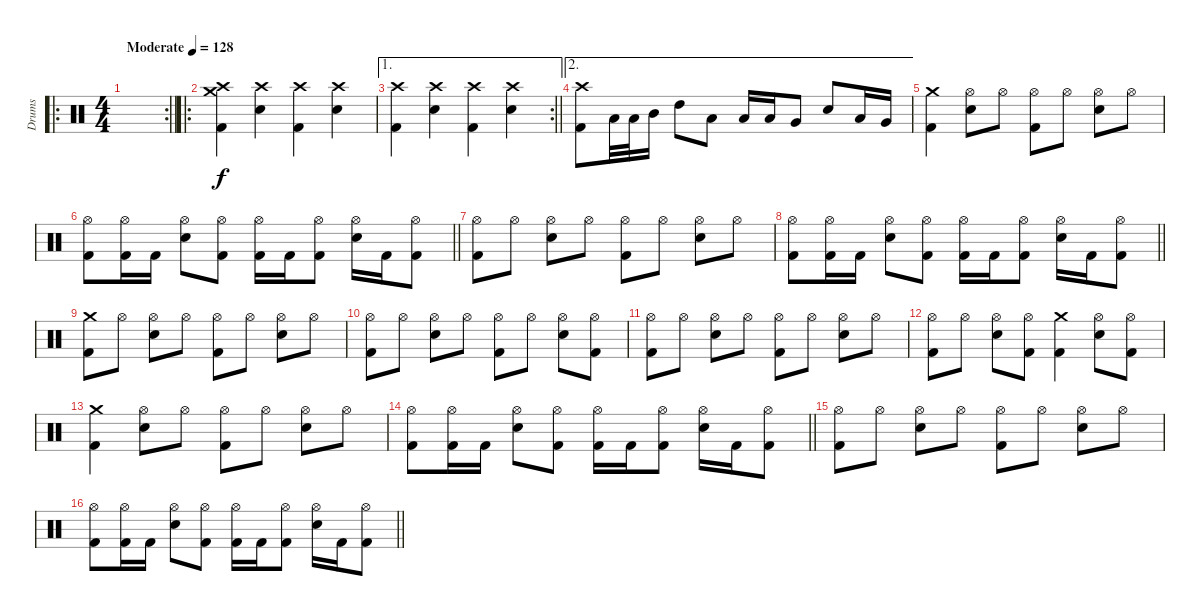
\track ("Drums" "Drums") {instrument percussion}
\staff {score}
\articulation defaults
\ro
\rc 2
\ts (4 4)
\tempo (128 "Moderate")
\clef neutral
\barLineRight lightlight
\ks c
|
\ro
("Crash medium (hit)" "Crash high (hit)" "Kick (hit) 2").4 ("Crash high (hit)" "Electric Snare (hit)").4 ("Crash high (hit)" "Kick (hit) 2").4 ("Crash high (hit)" "Electric Snare (hit)").4 |
\ae 1
\rc 2
\barLineRight lightlight
("Crash high (hit)" "Kick (hit) 2").4 ("Crash high (hit)" "Electric Snare (hit)").4 ("Crash high (hit)" "Kick (hit) 2").4 ("Crash high (hit)" "Electric Snare (hit)").4 |
\ae 2
("Crash high (hit)" "Kick (hit) 2").8 "Low Tom (hit)".32 "Low Tom (hit)".32 "Mid Tom (hit)".16 "High Tom (hit)".8 "Low Tom (hit)".8 "Low Tom (hit)".16 "Low Tom (hit)".16 "Very Low Tom (hit)".8 "Electric Snare (hit)".8 "Low Tom (hit)".16 "Very Low Tom (hit)".16 |
("Crash medium (hit)" "Kick (hit) 2").4 ("Hi-Hat (open)" "Electric Snare (hit)").8 "Hi-Hat (open)".8 ("Hi-Hat (open)" "Kick (hit) 2").8 "Hi-Hat (open)".8 ("Hi-Hat (open)" "Electric Snare (hit)").8 "Hi-Hat (open)".8 |
\barLineRight lightlight
("Hi-Hat (open)" "Kick (hit) 2").8 ("Hi-Hat (open)" "Kick (hit) 2").16 "Kick (hit) 2".16 ("Hi-Hat (open)" "Electric Snare (hit)").8 ("Hi-Hat (open)" "Kick (hit) 2").8 ("Hi-Hat (open)" "Kick (hit) 2").16 "Kick (hit) 2".16 ("Hi-Hat (open)" "Kick (hit) 2").8 ("Hi-Hat (open)" "Electric Snare (hit)").16 "Kick (hit) 2".16 ("Hi-Hat (open)" "Kick (hit) 2").8 |
("Hi-Hat (open)" "Kick (hit) 2").8 "Hi-Hat (open)".8 ("Hi-Hat (open)" "Electric Snare (hit)").8 "Hi-Hat (open)".8 ("Hi-Hat (open)" "Kick (hit) 2").8 "Hi-Hat (open)".8 ("Hi-Hat (open)" "Electric Snare (hit)").8 "Hi-Hat (open)".8 |
\barLineRight lightlight
("Hi-Hat (open)" "Kick (hit) 2").8 ("Hi-Hat (open)" "Kick (hit) 2").16 "Kick (hit) 2".16 ("Hi-Hat (open)" "Electric Snare (hit)").8 ("Hi-Hat (open)" "Kick (hit) 2").8 ("Hi-Hat (open)" "Kick (hit) 2").16 "Kick (hit) 2".16 ("Hi-Hat (open)" "Kick (hit) 2").8 ("Hi-Hat (open)" "Electric Snare (hit)").16 "Kick (hit) 2".16 ("Hi-Hat (open)" "Kick (hit) 2").8 |
("Crash medium (hit)" "Kick (hit) 2").8 "Hi-Hat (open)".8 ("Hi-Hat (open)" "Electric Snare (hit)").8 "Hi-Hat (open)".8 ("Hi-Hat (open)" "Kick (hit) 2").8 "Hi-Hat (open)".8 ("Hi-Hat (open)" "Electric Snare (hit)").8 "Hi-Hat (open)".8 |
("Hi-Hat (open)" "Kick (hit) 2").8 "Hi-Hat (open)".8 ("Hi-Hat (open)" "Electric Snare (hit)").8 "Hi-Hat (open)".8 ("Hi-Hat (open)" "Kick (hit) 2").8 "Hi-Hat (open)".8 ("Hi-Hat (open)" "Electric Snare (hit)").8 ("Hi-Hat (open)" "Kick (hit) 2").8 |
("Hi-Hat (open)" "Kick (hit) 2").8 "Hi-Hat (open)".8 ("Hi-Hat (open)" "Electric Snare (hit)").8 "Hi-Hat (open)".8 ("Hi-Hat (open)" "Kick (hit) 2").8 "Hi-Hat (open)".8 ("Hi-Hat (open)" "Electric Snare (hit)").8 "Hi-Hat (open)".8 |
("Hi-Hat (open)" "Kick (hit) 2").8 "Hi-Hat (open)".8 ("Hi-Hat (open)" "Electric Snare (hit)").8 ("Hi-Hat (open)" "Kick (hit) 2").8 ("Crash medium (hit)" "Kick (hit) 2").4 ("Hi-Hat (open)" "Electric Snare (hit)").8 ("Hi-Hat (open)" "Kick (hit) 2").8 |
("Crash medium (hit)" "Kick (hit) 2").4 ("Hi-Hat (open)" "Electric Snare (hit)").8 "Hi-Hat (open)".8 ("Hi-Hat (open)" "Kick (hit) 2").8 "Hi-Hat (open)".8 ("Hi-Hat (open)" "Electric Snare (hit)").8 "Hi-Hat (open)".8 |
\barLineRight lightlight
("Hi-Hat (open)" "Kick (hit) 2").8 ("Hi-Hat (open)" "Kick (hit) 2").16 "Kick (hit) 2".16 ("Hi-Hat (open)" "Electric Snare (hit)").8 ("Hi-Hat (open)" "Kick (hit) 2").8 ("Hi-Hat (open)" "Kick (hit) 2").16 "Kick (hit) 2".16 ("Hi-Hat (open)" "Kick (hit) 2").8 ("Hi-Hat (open)" "Electric Snare (hit)").16 "Kick (hit) 2".16 ("Hi-Hat (open)" "Kick (hit) 2").8 |
("Hi-Hat (open)" "Kick (hit) 2").8 "Hi-Hat (open)".8 ("Hi-Hat (open)" "Electric Snare (hit)").8 "Hi-Hat (open)".8 ("Hi-Hat (open)" "Kick (hit) 2").8 "Hi-Hat (open)".8 ("Hi-Hat (open)" "Electric Snare (hit)").8 "Hi-Hat (open)".8 |
\barLineRight lightlight
("Hi-Hat (open)" "Kick (hit) 2").8 ("Hi-Hat (open)" "Kick (hit) 2").16 "Kick (hit) 2".16 ("Hi-Hat (open)" "Electric Snare (hit)").8 ("Hi-Hat (open)" "Kick (hit) 2").8 ("Hi-Hat (open)" "Kick (hit) 2").16 "Kick (hit) 2".16 ("Hi-Hat (open)" "Kick (hit) 2").8 ("Hi-Hat (open)" "Electric Snare (hit)").16 "Kick (hit) 2".16 ("Hi-Hat (open)" "Kick (hit) 2").8
